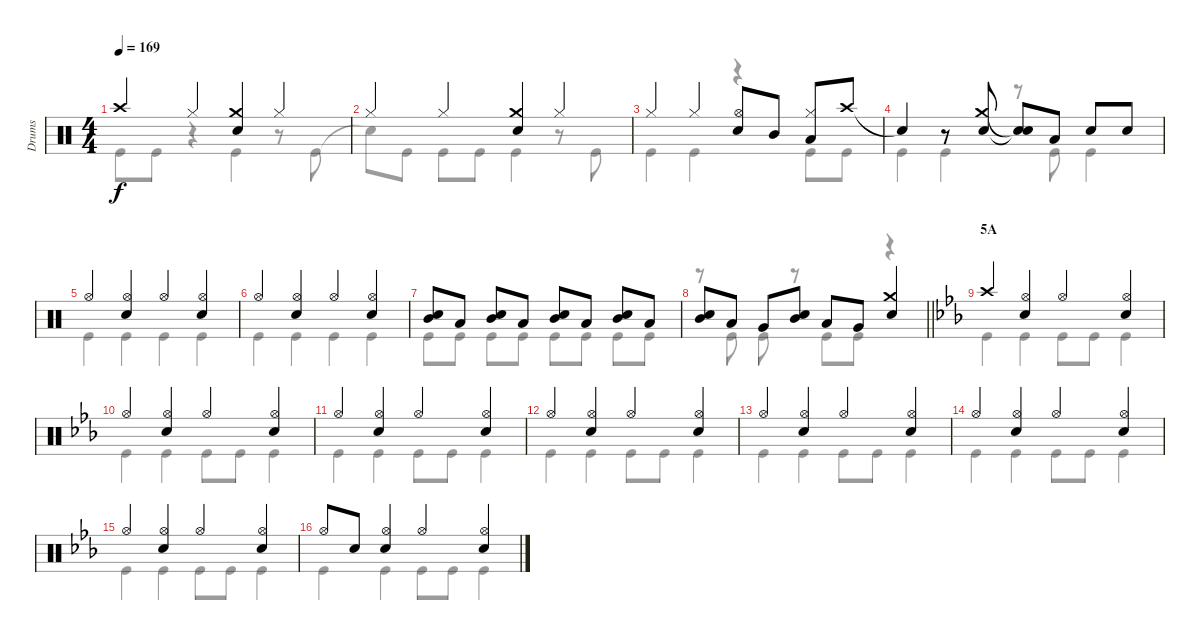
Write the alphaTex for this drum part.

\track ("Drums" "Drums") {instrument percussion}
\staff {score}
\articulation defaults
\voice
\ts (4 4)
\tempo 169
\clef neutral
\ks c "Crash high (hit)".4{dy f} "Hi-Hat (closed)".4
("Crash medium (hit)" "Snare (hit) 2").4 "Hi-Hat (closed)".4 |
"Hi-Hat (closed)".4 "Hi-Hat (closed)".4 ("Crash medium (hit)" "Snare (hit) 2").4 "Hi-Hat (closed)".4 |
"Hi-Hat (closed)".4 "Hi-Hat (closed)".4 ("Hi-Hat (open)" "Snare (hit) 2").8 "Mid Tom (hit)".8 ("Hi-Hat (closed)" "Low Tom (hit)").8 "Crash high (hit)".8 |
"Snare (hit)"{t}.4 r.8 ("Crash medium (hit)" "Snare (hit) 2").8 ("Snare (hit)"{t} "Snare (hit)"{t}).8 "Low Tom (hit)".8 "Snare (hit) 2".8 "Snare (hit) 2".8 |
"Hi-Hat (open)".4 ("Hi-Hat (open)" "Snare (hit) 2").4 "Hi-Hat (open)".4 ("Hi-Hat (open)" "Snare (hit) 2").4 |
"Hi-Hat (open)".4 ("Hi-Hat (open)" "Snare (hit) 2").4 "Hi-Hat (open)".4 ("Hi-Hat (open)" "Snare (hit) 2").4 |
("Mid Tom (hit)" "Snare (hit) 2").8 "Low Tom (hit)".8 ("Mid Tom (hit)" "Snare (hit) 2").8 "Low Tom (hit)".8 ("Mid Tom (hit)" "Snare (hit) 2").8 "Low Tom (hit)".8 ("Mid Tom (hit)" "Snare (hit) 2").8 "Low Tom (hit)".8 |
\barLineRight lightlight
("Mid Tom (hit)" "Snare (hit) 2").8 "Low Tom (hit)".8 "Very Low Tom (hit)".8 ("Mid Tom (hit)" "Snare (hit) 2").8 "Low Tom (hit)".8 "Very Low Tom (hit)".8 ("Crash medium (hit)" "Snare (hit) 2").4 |
\section ("" "5A")
\ks eb "Crash high (hit)".4
("Hi-Hat (open)" "Snare (hit) 2").4 "Hi-Hat (open)".4 ("Hi-Hat (open)" "Snare (hit) 2").4 |
"Hi-Hat (open)".4 ("Hi-Hat (open)" "Snare (hit) 2").4 "Hi-Hat (open)".4 ("Hi-Hat (open)" "Snare (hit) 2").4 |
"Hi-Hat (open)".4 ("Hi-Hat (open)" "Snare (hit) 2").4 "Hi-Hat (open)".4 ("Hi-Hat (open)" "Snare (hit) 2").4 |
"Hi-Hat (open)".4 ("Hi-Hat (open)" "Snare (hit) 2").4 "Hi-Hat (open)".4 ("Hi-Hat (open)" "Snare (hit) 2").4 |
"Hi-Hat (open)".4 ("Hi-Hat (open)" "Snare (hit) 2").4 "Hi-Hat (open)".4 ("Hi-Hat (open)" "Snare (hit) 2").4 |
"Hi-Hat (open)".4 ("Hi-Hat (open)" "Snare (hit) 2").4 "Hi-Hat (open)".4 ("Hi-Hat (open)" "Snare (hit) 2").4 |
"Hi-Hat (open)".4 ("Hi-Hat (open)" "Snare (hit) 2").4 "Hi-Hat (open)".4 ("Hi-Hat (open)" "Snare (hit) 2").4 |
"Hi-Hat (open)".8 "Snare (hit) 2".8 ("Hi-Hat (open)" "Snare (hit) 2").4 "Hi-Hat (open)".4 ("Hi-Hat (open)" "Snare (hit) 2").4
\voice
\clef neutral
\ottava regular
\simile none
\ks c "Kick (hit)".8{dy f} "Kick (hit)".8
r.4 "Kick (hit)".4 r.8 "Kick (hit)".8 |
"Snare (hit)"{t}.8 "Kick (hit)".8 "Kick (hit)".8 "Kick (hit)".8 "Kick (hit)".4 r.8 "Kick (hit)".8 |
"Kick (hit)".4 "Kick (hit)".4 r.4 "Kick (hit)".8 "Kick (hit)".8 |
"Kick (hit)".4 "Kick (hit)".4 r.8 "Kick (hit)".8 "Kick (hit)".4 |
"Kick (hit)".4 "Kick (hit)".4 "Kick (hit)".4 "Kick (hit)".4 |
"Kick (hit)".4 "Kick (hit)".4 "Kick (hit)".4 "Kick (hit)".4 |
"Kick (hit)".8 "Kick (hit)".8 "Kick (hit)".8 "Kick (hit)".8 "Kick (hit)".8 "Kick (hit)".8 "Kick (hit)".8 "Kick (hit)".8 |
\barLineRight lightlight
r.8 "Kick (hit)".8 "Kick (hit)".8 r.8 "Kick (hit)".8 "Kick (hit)".8 r.4 |
\ks eb "Kick (hit)".4 "Kick (hit)".4 "Kick (hit)".8 "Kick (hit)".8 "Kick (hit)".4
|
"Kick (hit)".4 "Kick (hit)".4 "Kick (hit)".8 "Kick (hit)".8 "Kick (hit)".4 |
"Kick (hit)".4 "Kick (hit)".4 "Kick (hit)".8 "Kick (hit)".8 "Kick (hit)".4 |
"Kick (hit)".4 "Kick (hit)".4 "Kick (hit)".8 "Kick (hit)".8 "Kick (hit)".4 |
"Kick (hit)".4 "Kick (hit)".4 "Kick (hit)".8 "Kick (hit)".8 "Kick (hit)".4 |
"Kick (hit)".4 "Kick (hit)".4 "Kick (hit)".8 "Kick (hit)".8 "Kick (hit)".4 |
"Kick (hit)".4 "Kick (hit)".4 "Kick (hit)".8 "Kick (hit)".8 "Kick (hit)".4 |
"Kick (hit)".4 "Kick (hit)".4 "Kick (hit)".8 "Kick (hit)".8 "Kick (hit)".4
